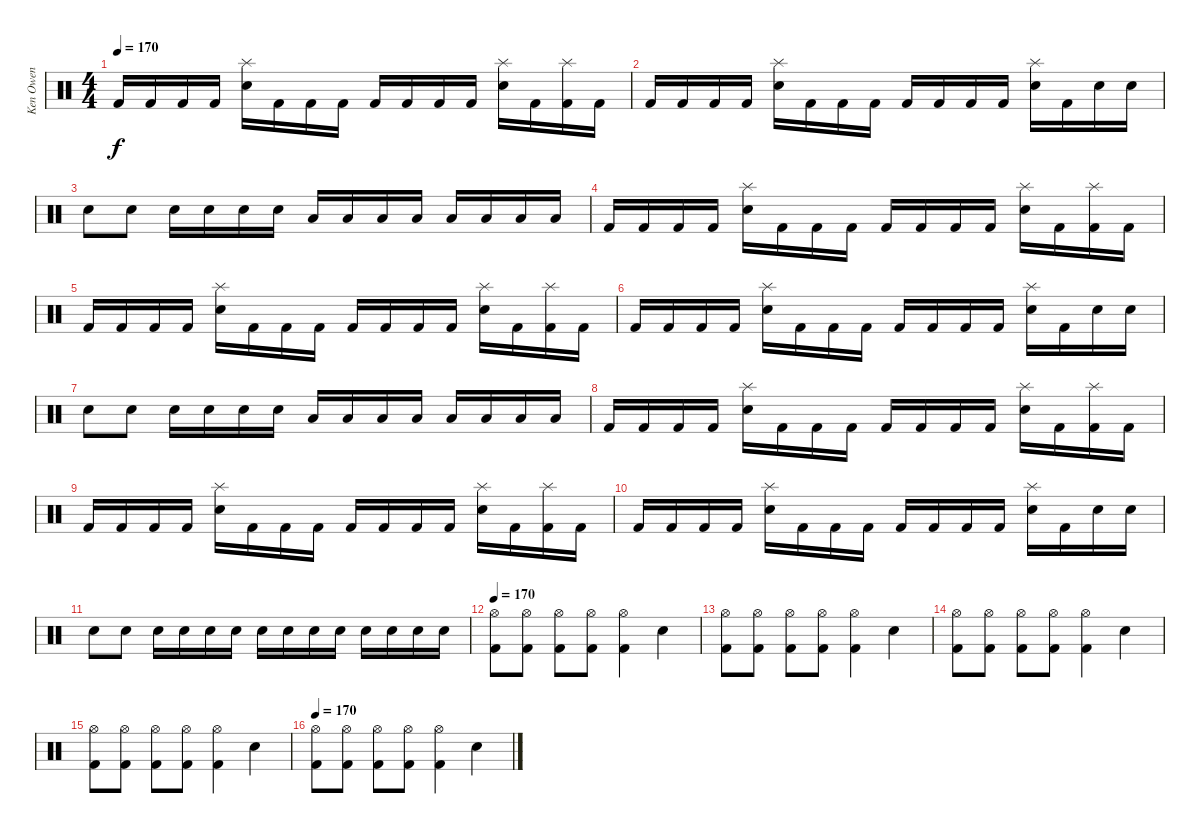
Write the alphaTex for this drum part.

\track ("Ken Owen" "Ken Owen") {instrument percussion}
\staff {score}
\articulation defaults
\ts (4 4)
\tempo 170
\clef neutral
\ks c "Kick (hit) 2".16{dy f} "Kick (hit) 2".16 "Kick (hit) 2".16 "Kick (hit) 2".16
("Splash (hit)" "Electric Snare (hit)").16 "Kick (hit) 2".16 "Kick (hit) 2".16 "Kick (hit) 2".16 "Kick (hit) 2".16 "Kick (hit) 2".16 "Kick (hit) 2".16 "Kick (hit) 2".16 ("Splash (hit)" "Electric Snare (hit)").16 "Kick (hit) 2".16 ("Splash (hit)" "Kick (hit) 2").16 "Kick (hit) 2".16 |
"Kick (hit) 2".16 "Kick (hit) 2".16 "Kick (hit) 2".16 "Kick (hit) 2".16 ("Splash (hit)" "Electric Snare (hit)").16 "Kick (hit) 2".16 "Kick (hit) 2".16 "Kick (hit) 2".16 "Kick (hit) 2".16 "Kick (hit) 2".16 "Kick (hit) 2".16 "Kick (hit) 2".16 ("Splash (hit)" "Electric Snare (hit)").16 "Kick (hit) 2".16 "Electric Snare (hit)".16 "Electric Snare (hit)".16 |
"Electric Snare (hit)".8 "Electric Snare (hit)".8 "Electric Snare (hit)".16 "Electric Snare (hit)".16 "Electric Snare (hit)".16 "Electric Snare (hit)".16 "Low Floor Tom (hit)".16 "Low Floor Tom (hit)".16 "Low Floor Tom (hit)".16 "Low Floor Tom (hit)".16 "Low Floor Tom (hit)".16 "Low Floor Tom (hit)".16 "Low Floor Tom (hit)".16 "Low Floor Tom (hit)".16 |
"Kick (hit) 2".16 "Kick (hit) 2".16 "Kick (hit) 2".16 "Kick (hit) 2".16 ("Splash (hit)" "Electric Snare (hit)").16 "Kick (hit) 2".16 "Kick (hit) 2".16 "Kick (hit) 2".16 "Kick (hit) 2".16 "Kick (hit) 2".16 "Kick (hit) 2".16 "Kick (hit) 2".16 ("Splash (hit)" "Electric Snare (hit)").16 "Kick (hit) 2".16 ("Splash (hit)" "Kick (hit) 2").16 "Kick (hit) 2".16 |
"Kick (hit) 2".16 "Kick (hit) 2".16 "Kick (hit) 2".16 "Kick (hit) 2".16 ("Splash (hit)" "Electric Snare (hit)").16 "Kick (hit) 2".16 "Kick (hit) 2".16 "Kick (hit) 2".16 "Kick (hit) 2".16 "Kick (hit) 2".16 "Kick (hit) 2".16 "Kick (hit) 2".16 ("Splash (hit)" "Electric Snare (hit)").16 "Kick (hit) 2".16 ("Splash (hit)" "Kick (hit) 2").16 "Kick (hit) 2".16 |
"Kick (hit) 2".16 "Kick (hit) 2".16 "Kick (hit) 2".16 "Kick (hit) 2".16 ("Splash (hit)" "Electric Snare (hit)").16 "Kick (hit) 2".16 "Kick (hit) 2".16 "Kick (hit) 2".16 "Kick (hit) 2".16 "Kick (hit) 2".16 "Kick (hit) 2".16 "Kick (hit) 2".16 ("Splash (hit)" "Electric Snare (hit)").16 "Kick (hit) 2".16 "Electric Snare (hit)".16 "Electric Snare (hit)".16 |
"Electric Snare (hit)".8 "Electric Snare (hit)".8 "Electric Snare (hit)".16 "Electric Snare (hit)".16 "Electric Snare (hit)".16 "Electric Snare (hit)".16 "Low Floor Tom (hit)".16 "Low Floor Tom (hit)".16 "Low Floor Tom (hit)".16 "Low Floor Tom (hit)".16 "Low Floor Tom (hit)".16 "Low Floor Tom (hit)".16 "Low Floor Tom (hit)".16 "Low Floor Tom (hit)".16 |
"Kick (hit) 2".16 "Kick (hit) 2".16 "Kick (hit) 2".16 "Kick (hit) 2".16 ("Splash (hit)" "Electric Snare (hit)").16 "Kick (hit) 2".16 "Kick (hit) 2".16 "Kick (hit) 2".16 "Kick (hit) 2".16 "Kick (hit) 2".16 "Kick (hit) 2".16 "Kick (hit) 2".16 ("Splash (hit)" "Electric Snare (hit)").16 "Kick (hit) 2".16 ("Splash (hit)" "Kick (hit) 2").16 "Kick (hit) 2".16 |
"Kick (hit) 2".16 "Kick (hit) 2".16 "Kick (hit) 2".16 "Kick (hit) 2".16 ("Splash (hit)" "Electric Snare (hit)").16 "Kick (hit) 2".16 "Kick (hit) 2".16 "Kick (hit) 2".16 "Kick (hit) 2".16 "Kick (hit) 2".16 "Kick (hit) 2".16 "Kick (hit) 2".16 ("Splash (hit)" "Electric Snare (hit)").16 "Kick (hit) 2".16 ("Splash (hit)" "Kick (hit) 2").16 "Kick (hit) 2".16 |
"Kick (hit) 2".16 "Kick (hit) 2".16 "Kick (hit) 2".16 "Kick (hit) 2".16 ("Splash (hit)" "Electric Snare (hit)").16 "Kick (hit) 2".16 "Kick (hit) 2".16 "Kick (hit) 2".16 "Kick (hit) 2".16 "Kick (hit) 2".16 "Kick (hit) 2".16 "Kick (hit) 2".16 ("Splash (hit)" "Electric Snare (hit)").16 "Kick (hit) 2".16 "Electric Snare (hit)".16 "Electric Snare (hit)".16 |
"Electric Snare (hit)".8 "Electric Snare (hit)".8 "Electric Snare (hit)".16 "Electric Snare (hit)".16 "Electric Snare (hit)".16 "Electric Snare (hit)".16 "Electric Snare (hit)".16 "Electric Snare (hit)".16 "Electric Snare (hit)".16 "Electric Snare (hit)".16 "Electric Snare (hit)".16 "Electric Snare (hit)".16 "Electric Snare (hit)".16 "Electric Snare (hit)".16 |
\tempo 170
("Hi-Hat (open)" "Kick (hit) 2").8 ("Hi-Hat (open)" "Kick (hit) 2").8 ("Hi-Hat (open)" "Kick (hit) 2").8 ("Hi-Hat (open)" "Kick (hit) 2").8 ("Hi-Hat (open)" "Kick (hit) 2").4 "Electric Snare (hit)".4 |
("Hi-Hat (open)" "Kick (hit) 2").8 ("Hi-Hat (open)" "Kick (hit) 2").8 ("Hi-Hat (open)" "Kick (hit) 2").8 ("Hi-Hat (open)" "Kick (hit) 2").8 ("Hi-Hat (open)" "Kick (hit) 2").4 "Electric Snare (hit)".4 |
("Hi-Hat (open)" "Kick (hit) 2").8 ("Hi-Hat (open)" "Kick (hit) 2").8 ("Hi-Hat (open)" "Kick (hit) 2").8 ("Hi-Hat (open)" "Kick (hit) 2").8 ("Hi-Hat (open)" "Kick (hit) 2").4 "Electric Snare (hit)".4 |
("Hi-Hat (open)" "Kick (hit) 2").8 ("Hi-Hat (open)" "Kick (hit) 2").8 ("Hi-Hat (open)" "Kick (hit) 2").8 ("Hi-Hat (open)" "Kick (hit) 2").8 ("Hi-Hat (open)" "Kick (hit) 2").4 "Electric Snare (hit)".4 |
\tempo 170
("Hi-Hat (open)" "Kick (hit) 2").8 ("Hi-Hat (open)" "Kick (hit) 2").8 ("Hi-Hat (open)" "Kick (hit) 2").8 ("Hi-Hat (open)" "Kick (hit) 2").8 ("Hi-Hat (open)" "Kick (hit) 2").4 "Electric Snare (hit)".4
